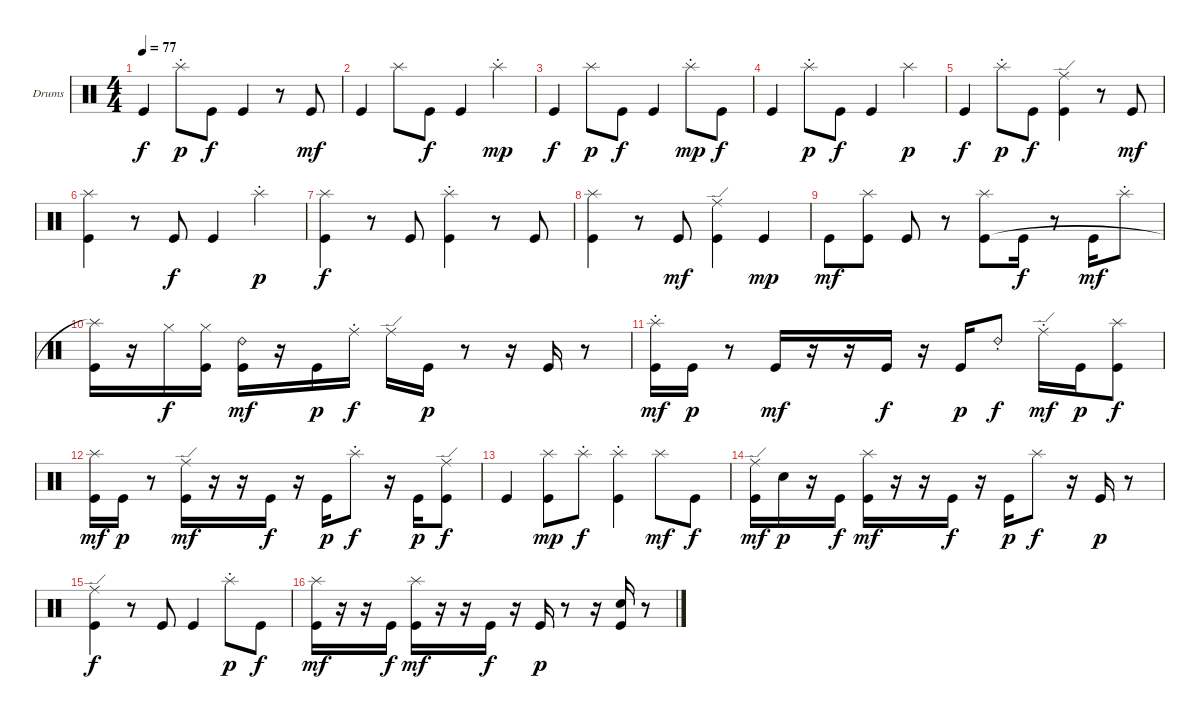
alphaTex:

\bracketExtendMode groupsimilarinstruments
\firstSystemTrackNameOrientation horizontal
\otherSystemsTrackNameOrientation horizontal
\track ("Ударники Григорий Гурьянов" "Drums") {instrument percussion}
\staff {score}
\articulation defaults
\ts (4 4)
\tempo 77
\clef neutral
\ks c "Kick (hit)".4{dy f} "Splash (hit)"{st}.8{dy p} "Kick (hit)".8{dy f} "Kick (hit)".4
r.8 "Kick (hit)".8{dy mf} |
"Kick (hit)".4 "Splash (hit)".8 "Kick (hit)".8{dy f} "Kick (hit)".4 "Splash (hit)"{st}.4{dy mp} |
"Kick (hit)".4{dy f} "Splash (hit)".8{dy p} "Kick (hit)".8{dy f} "Kick (hit)".4 "Splash (hit)"{st}.8{dy mp} "Kick (hit)".8{dy f} |
"Kick (hit)".4 "Splash (hit)"{st}.8{dy p} "Kick (hit)".8{dy f} "Kick (hit)".4 "Splash (hit)".4{dy p} |
"Kick (hit)".4{dy f} "Splash (hit)"{st}.8{dy p} "Kick (hit)".8{dy f} ("Kick (hit)" "Ride (edge)").4 r.8 "Kick (hit)".8{dy mf} |
("Kick (hit)" "Splash (hit)").4 r.8 "Kick (hit)".8{dy f} "Kick (hit)".4 "Splash (hit)"{st}.4{dy p} |
("Kick (hit)" "Splash (hit)").4{dy f} r.8 "Kick (hit)".8 ("Kick (hit)" "Splash (hit)"{st}).4 r.8 "Kick (hit)".8 |
("Kick (hit)" "Splash (hit)").4 r.8 "Kick (hit)".8{dy mf} ("Kick (hit)" "Ride (edge)").4 "Kick (hit)".4{dy mp} |
"Kick (hit)".8{dy mf} ("Splash (hit)" "Kick (hit)").8 "Kick (hit)".8 r.8 ("Splash (hit)" "Kick (hit)").8 "Kick (hit)".16{dy f} r.8 "Kick (hit)".16{dy mf} "Splash (hit)"{st}.8 |
("Kick (hit)" "Splash (hit)"{t}).16 r.16 "Hi-Hat (closed)".16{dy f} ("Kick (hit)" "Hi-Hat (closed)").16 ("Kick (hit)" "Ride (bell) 2").16{dy mf} r.16 "Kick (hit)".16{dy p} "Ride (middle)"{st}.16{dy f} "Ride (edge)".16 "Kick (hit)".16{dy p} r.8 r.16 "Kick (hit)".16 r.8 |
("Kick (hit)" "Splash (hit)"{st}).16{dy mf} "Kick (hit)".16{dy p} r.8 "Kick (hit)".16{dy mf} r.16 r.16 "Kick (hit)".16{dy f} r.16 "Kick (hit)".16{dy p} "Ride (bell) 2"{st}.8{dy f} "Ride (edge)"{st}.16{dy mf} "Kick (hit)".16{dy p} ("Kick (hit)" "Splash (hit)").8{dy f} |
("Kick (hit)" "Splash (hit)").16{dy mf} "Kick (hit)".16{dy p} r.8 ("Kick (hit)" "Ride (edge)").16{dy mf} r.16 r.16 "Kick (hit)".16{dy f} r.16 "Kick (hit)".16{dy p} "Splash (hit)"{st}.8{dy f} r.16 "Kick (hit)".16{dy p} ("Kick (hit)" "Ride (edge)").8{dy f} |
"Kick (hit)".4 ("Splash (hit)" "Kick (hit)").8{dy mp} "Splash (hit)"{st}.8{dy f} ("Kick (hit)" "Splash (hit)"{st}).4 "Splash (hit)".8{dy mf} "Kick (hit)".8{dy f} |
("Kick (hit)" "Ride (edge)").16{dy mf} "Snare (hit) 2".16{dy p} r.16 "Kick (hit)".16{dy f} ("Kick (hit)" "Splash (hit)").16{dy mf} r.16 r.16 "Kick (hit)".16{dy f} r.16 "Kick (hit)".16{dy p} "Splash (hit)".8{dy f} r.16 "Kick (hit)".16{dy p} r.8 |
("Kick (hit)" "Ride (edge)").4{dy f} r.8 "Kick (hit)".8 "Kick (hit)".4 "Splash (hit)"{st}.8{dy p} "Kick (hit)".8{dy f} |
("Kick (hit)" "Splash (hit)").16{dy mf} r.16 r.16 "Kick (hit)".16{dy f} ("Kick (hit)" "Splash (hit)").16{dy mf} r.16 r.16 "Kick (hit)".16{dy f} r.16 "Kick (hit)".16{dy p} r.8 r.16 ("Snare (hit) 2" "Kick (hit)").16 r.8
